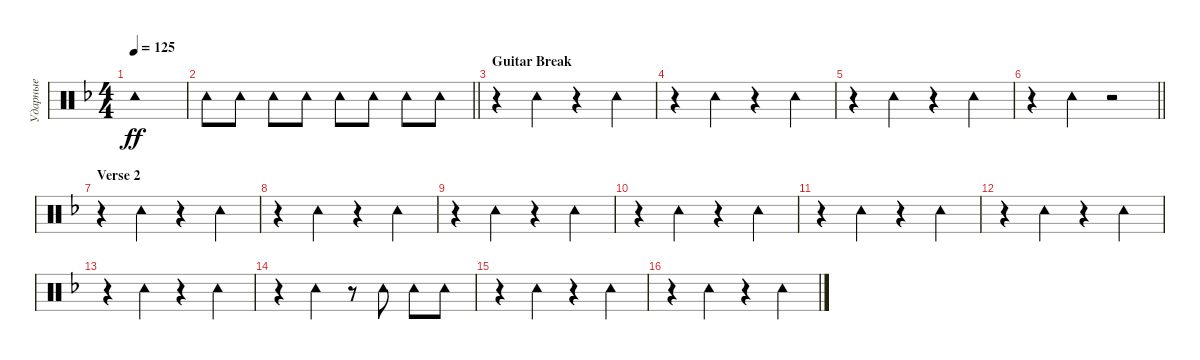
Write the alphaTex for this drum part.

\track ("Ударные" "Ударные") {instrument percussion}
\staff {score}
\articulation defaults
\ts (4 4)
\tempo 125
\clef neutral
\ks dminor "Tambourine (hit)".1{dy ff}
|
\barLineRight lightlight "Tambourine (hit)".8 "Tambourine (hit)".8 "Tambourine (hit)".8 "Tambourine (hit)".8 "Tambourine (hit)".8 "Tambourine (hit)".8 "Tambourine (hit)".8 "Tambourine (hit)".8
|
\section ("" "Guitar Break")
r.4 "Tambourine (hit)".4 r.4 "Tambourine (hit)".4 |
r.4 "Tambourine (hit)".4 r.4 "Tambourine (hit)".4 |
r.4 "Tambourine (hit)".4 r.4 "Tambourine (hit)".4 |
\barLineRight lightlight
r.4 "Tambourine (hit)".4 r.2 |
\section ("" "Verse 2")
r.4 "Tambourine (hit)".4 r.4 "Tambourine (hit)".4 |
r.4 "Tambourine (hit)".4 r.4 "Tambourine (hit)".4 |
r.4 "Tambourine (hit)".4 r.4 "Tambourine (hit)".4 |
r.4 "Tambourine (hit)".4 r.4 "Tambourine (hit)".4 |
r.4 "Tambourine (hit)".4 r.4 "Tambourine (hit)".4 |
r.4 "Tambourine (hit)".4 r.4 "Tambourine (hit)".4 |
r.4 "Tambourine (hit)".4 r.4 "Tambourine (hit)".4 |
r.4 "Tambourine (hit)".4 r.8 "Tambourine (hit)".8 "Tambourine (hit)".8 "Tambourine (hit)".8 |
r.4 "Tambourine (hit)".4 r.4 "Tambourine (hit)".4 |
r.4 "Tambourine (hit)".4 r.4 "Tambourine (hit)".4
